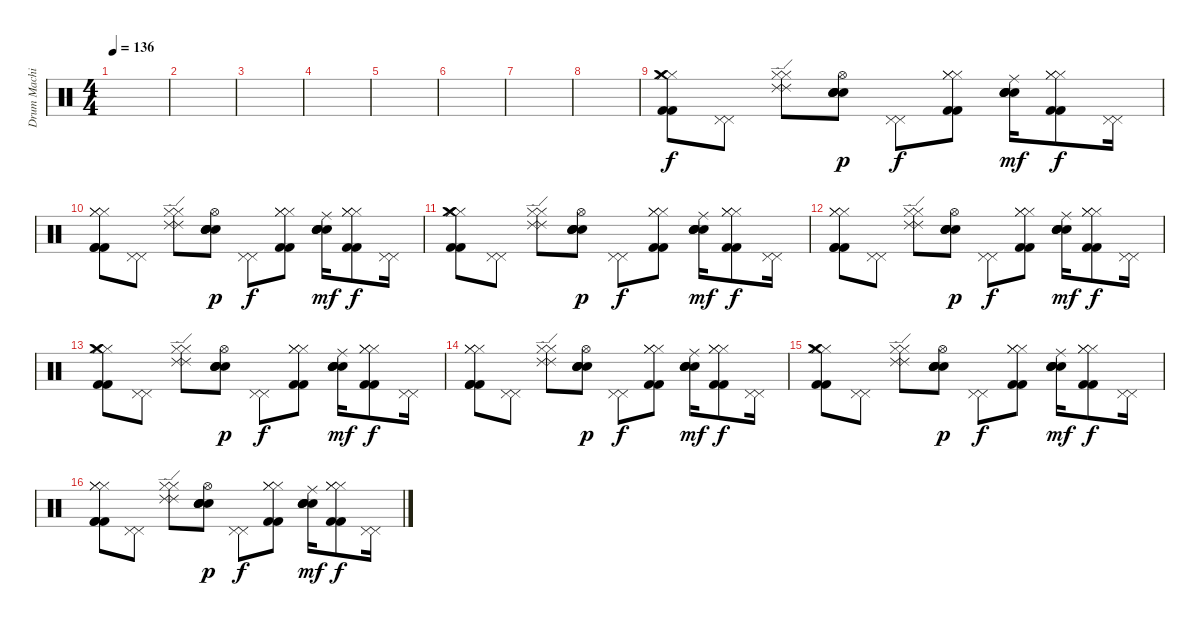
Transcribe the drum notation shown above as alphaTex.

\track ("Drum Machine" "Drum Machi") {instrument percussion}
\staff {score}
\articulation defaults
\ts (4 4)
\tempo 136
\clef neutral
\ks c
|
|
|
|
|
|
|
|
("Hi-Hat (closed)" "Kick (hit) 2" "Crash medium (hit)" "Kick (hit) 2" "Hi-Hat (closed)" "Hi-Hat (closed)").8 ("Pedal Hi-Hat (hit)" "Pedal Hi-Hat (hit)").8 ("Hi-Hat (closed)" "Hi-Hat (closed)" "Ride (edge) 2" "Ride (edge) 2").8 ("Electric Snare (hit)" "Snare (hit) 2" "Snare (hit) 2" "Hi-Hat (open)" "Electric Snare (hit)").8{dy p} ("Pedal Hi-Hat (hit)" "Pedal Hi-Hat (hit)").8{dy f} ("Hi-Hat (closed)" "Kick (hit) 2" "Hi-Hat (closed)" "Hi-Hat (closed)" "Kick (hit) 2").8 ("Ride (middle)" "Electric Snare (hit)" "Snare (hit) 2" "Snare (hit) 2" "Electric Snare (hit)").16{dy mf} ("Hi-Hat (closed)" "Kick (hit) 2" "Hi-Hat (closed)" "Hi-Hat (closed)" "Kick (hit) 2").8{dy f} ("Pedal Hi-Hat (hit)" "Pedal Hi-Hat (hit)").16 |
("Hi-Hat (closed)" "Kick (hit) 2" "Hi-Hat (closed)" "Kick (hit) 2" "Kick (hit) 2" "Hi-Hat (closed)").8 ("Pedal Hi-Hat (hit)" "Pedal Hi-Hat (hit)").8 ("Hi-Hat (closed)" "Hi-Hat (closed)" "Ride (edge) 2" "Ride (edge) 2").8 ("Electric Snare (hit)" "Snare (hit) 2" "Snare (hit) 2" "Hi-Hat (open)" "Electric Snare (hit)").8{dy p} ("Pedal Hi-Hat (hit)" "Pedal Hi-Hat (hit)").8{dy f} ("Hi-Hat (closed)" "Kick (hit) 2" "Hi-Hat (closed)" "Hi-Hat (closed)" "Kick (hit) 2").8 ("Ride (middle)" "Electric Snare (hit)" "Snare (hit) 2" "Snare (hit) 2" "Electric Snare (hit)").16{dy mf} ("Hi-Hat (closed)" "Kick (hit) 2" "Hi-Hat (closed)" "Hi-Hat (closed)" "Kick (hit) 2").8{dy f} ("Pedal Hi-Hat (hit)" "Pedal Hi-Hat (hit)").16 |
("Hi-Hat (closed)" "Kick (hit) 2" "Crash medium (hit)" "Kick (hit) 2" "Hi-Hat (closed)" "Hi-Hat (closed)").8 ("Pedal Hi-Hat (hit)" "Pedal Hi-Hat (hit)").8 ("Hi-Hat (closed)" "Hi-Hat (closed)" "Ride (edge) 2" "Ride (edge) 2").8 ("Electric Snare (hit)" "Snare (hit) 2" "Snare (hit) 2" "Hi-Hat (open)" "Electric Snare (hit)").8{dy p} ("Pedal Hi-Hat (hit)" "Pedal Hi-Hat (hit)").8{dy f} ("Hi-Hat (closed)" "Kick (hit) 2" "Hi-Hat (closed)" "Hi-Hat (closed)" "Kick (hit) 2").8 ("Ride (middle)" "Electric Snare (hit)" "Snare (hit) 2" "Snare (hit) 2" "Electric Snare (hit)").16{dy mf} ("Hi-Hat (closed)" "Kick (hit) 2" "Hi-Hat (closed)" "Hi-Hat (closed)" "Kick (hit) 2").8{dy f} ("Pedal Hi-Hat (hit)" "Pedal Hi-Hat (hit)").16 |
("Hi-Hat (closed)" "Kick (hit) 2" "Hi-Hat (closed)" "Kick (hit) 2" "Kick (hit) 2" "Hi-Hat (closed)").8 ("Pedal Hi-Hat (hit)" "Pedal Hi-Hat (hit)").8 ("Hi-Hat (closed)" "Hi-Hat (closed)" "Ride (edge) 2" "Ride (edge) 2").8 ("Electric Snare (hit)" "Snare (hit) 2" "Snare (hit) 2" "Hi-Hat (open)" "Electric Snare (hit)").8{dy p} ("Pedal Hi-Hat (hit)" "Pedal Hi-Hat (hit)").8{dy f} ("Hi-Hat (closed)" "Kick (hit) 2" "Hi-Hat (closed)" "Hi-Hat (closed)" "Kick (hit) 2").8 ("Ride (middle)" "Electric Snare (hit)" "Snare (hit) 2" "Snare (hit) 2" "Electric Snare (hit)").16{dy mf} ("Hi-Hat (closed)" "Kick (hit) 2" "Hi-Hat (closed)" "Hi-Hat (closed)" "Kick (hit) 2").8{dy f} ("Pedal Hi-Hat (hit)" "Pedal Hi-Hat (hit)").16 |
("Hi-Hat (closed)" "Kick (hit) 2" "Crash medium (hit)" "Kick (hit) 2" "Hi-Hat (closed)" "Hi-Hat (closed)").8 ("Pedal Hi-Hat (hit)" "Pedal Hi-Hat (hit)").8 ("Hi-Hat (closed)" "Hi-Hat (closed)" "Ride (edge) 2" "Ride (edge) 2").8 ("Electric Snare (hit)" "Snare (hit) 2" "Snare (hit) 2" "Hi-Hat (open)" "Electric Snare (hit)").8{dy p} ("Pedal Hi-Hat (hit)" "Pedal Hi-Hat (hit)").8{dy f} ("Hi-Hat (closed)" "Kick (hit) 2" "Hi-Hat (closed)" "Hi-Hat (closed)" "Kick (hit) 2").8 ("Ride (middle)" "Electric Snare (hit)" "Snare (hit) 2" "Snare (hit) 2" "Electric Snare (hit)").16{dy mf} ("Hi-Hat (closed)" "Kick (hit) 2" "Hi-Hat (closed)" "Hi-Hat (closed)" "Kick (hit) 2").8{dy f} ("Pedal Hi-Hat (hit)" "Pedal Hi-Hat (hit)").16 |
("Hi-Hat (closed)" "Kick (hit) 2" "Hi-Hat (closed)" "Kick (hit) 2" "Kick (hit) 2" "Hi-Hat (closed)").8 ("Pedal Hi-Hat (hit)" "Pedal Hi-Hat (hit)").8 ("Hi-Hat (closed)" "Hi-Hat (closed)" "Ride (edge) 2" "Ride (edge) 2").8 ("Electric Snare (hit)" "Snare (hit) 2" "Snare (hit) 2" "Hi-Hat (open)" "Electric Snare (hit)").8{dy p} ("Pedal Hi-Hat (hit)" "Pedal Hi-Hat (hit)").8{dy f} ("Hi-Hat (closed)" "Kick (hit) 2" "Hi-Hat (closed)" "Hi-Hat (closed)" "Kick (hit) 2").8 ("Ride (middle)" "Electric Snare (hit)" "Snare (hit) 2" "Snare (hit) 2" "Electric Snare (hit)").16{dy mf} ("Hi-Hat (closed)" "Kick (hit) 2" "Hi-Hat (closed)" "Hi-Hat (closed)" "Kick (hit) 2").8{dy f} ("Pedal Hi-Hat (hit)" "Pedal Hi-Hat (hit)").16 |
("Hi-Hat (closed)" "Kick (hit) 2" "Crash medium (hit)" "Kick (hit) 2" "Hi-Hat (closed)" "Hi-Hat (closed)").8 ("Pedal Hi-Hat (hit)" "Pedal Hi-Hat (hit)").8 ("Hi-Hat (closed)" "Hi-Hat (closed)" "Ride (edge) 2" "Ride (edge) 2").8 ("Electric Snare (hit)" "Snare (hit) 2" "Snare (hit) 2" "Hi-Hat (open)" "Electric Snare (hit)").8{dy p} ("Pedal Hi-Hat (hit)" "Pedal Hi-Hat (hit)").8{dy f} ("Hi-Hat (closed)" "Kick (hit) 2" "Hi-Hat (closed)" "Hi-Hat (closed)" "Kick (hit) 2").8 ("Ride (middle)" "Electric Snare (hit)" "Snare (hit) 2" "Snare (hit) 2" "Electric Snare (hit)").16{dy mf} ("Hi-Hat (closed)" "Kick (hit) 2" "Hi-Hat (closed)" "Hi-Hat (closed)" "Kick (hit) 2").8{dy f} ("Pedal Hi-Hat (hit)" "Pedal Hi-Hat (hit)").16 |
("Hi-Hat (closed)" "Kick (hit) 2" "Hi-Hat (closed)" "Kick (hit) 2" "Kick (hit) 2" "Hi-Hat (closed)").8 ("Pedal Hi-Hat (hit)" "Pedal Hi-Hat (hit)").8 ("Hi-Hat (closed)" "Hi-Hat (closed)" "Ride (edge) 2" "Ride (edge) 2").8 ("Electric Snare (hit)" "Snare (hit) 2" "Snare (hit) 2" "Hi-Hat (open)" "Electric Snare (hit)").8{dy p} ("Pedal Hi-Hat (hit)" "Pedal Hi-Hat (hit)").8{dy f} ("Hi-Hat (closed)" "Kick (hit) 2" "Hi-Hat (closed)" "Hi-Hat (closed)" "Kick (hit) 2").8 ("Ride (middle)" "Electric Snare (hit)" "Snare (hit) 2" "Snare (hit) 2" "Electric Snare (hit)").16{dy mf} ("Hi-Hat (closed)" "Kick (hit) 2" "Hi-Hat (closed)" "Hi-Hat (closed)" "Kick (hit) 2").8{dy f} ("Pedal Hi-Hat (hit)" "Pedal Hi-Hat (hit)").16
